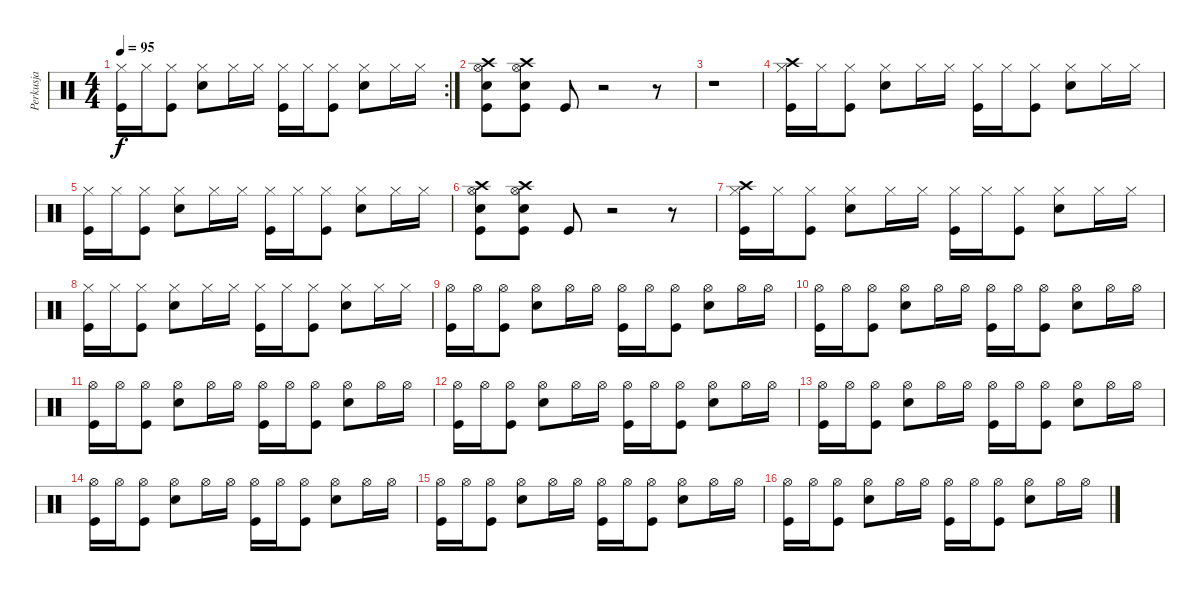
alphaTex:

\track ("Perkusja" "Perkusja") {instrument percussion}
\staff {score}
\articulation defaults
\rc 2
\ts (4 4)
\tempo 95
\clef neutral
\ks c
("Hi-Hat (closed)" "Kick (hit)").16{dy f} "Hi-Hat (closed)".16 ("Hi-Hat (closed)" "Kick (hit)").8 ("Hi-Hat (closed)" "Electric Snare (hit)").8 "Hi-Hat (closed)".16 "Hi-Hat (closed)".16 ("Hi-Hat (closed)" "Kick (hit)").16 "Hi-Hat (closed)".16 ("Hi-Hat (closed)" "Kick (hit)").8 ("Hi-Hat (closed)" "Electric Snare (hit)").8 "Hi-Hat (closed)".16 "Hi-Hat (closed)".16 |
("Hi-Hat (open)" "Crash high (hit)" "Electric Snare (hit)" "Kick (hit)").8 ("Hi-Hat (open)" "Crash high (hit)" "Electric Snare (hit)" "Kick (hit)").8 "Kick (hit)".8 r.2 r.8 |
r.1 |
("Hi-Hat (closed)" "Crash high (hit)" "Kick (hit)").16 "Hi-Hat (closed)".16 ("Hi-Hat (closed)" "Kick (hit)").8 ("Hi-Hat (closed)" "Electric Snare (hit)").8 "Hi-Hat (closed)".16 "Hi-Hat (closed)".16 ("Hi-Hat (closed)" "Kick (hit)").16 "Hi-Hat (closed)".16 ("Hi-Hat (closed)" "Kick (hit)").8 ("Hi-Hat (closed)" "Electric Snare (hit)").8 "Hi-Hat (closed)".16 "Hi-Hat (closed)".16 |
("Hi-Hat (closed)" "Kick (hit)").16 "Hi-Hat (closed)".16 ("Hi-Hat (closed)" "Kick (hit)").8 ("Hi-Hat (closed)" "Electric Snare (hit)").8 "Hi-Hat (closed)".16 "Hi-Hat (closed)".16 ("Hi-Hat (closed)" "Kick (hit)").16 "Hi-Hat (closed)".16 ("Hi-Hat (closed)" "Kick (hit)").8 ("Hi-Hat (closed)" "Electric Snare (hit)").8 "Hi-Hat (closed)".16 "Hi-Hat (closed)".16 |
("Hi-Hat (open)" "Crash high (hit)" "Electric Snare (hit)" "Kick (hit)").8 ("Hi-Hat (open)" "Crash high (hit)" "Electric Snare (hit)" "Kick (hit)").8 "Kick (hit)".8 r.2 r.8 |
("Hi-Hat (closed)" "Crash high (hit)" "Kick (hit)").16 "Hi-Hat (closed)".16 ("Hi-Hat (closed)" "Kick (hit)").8 ("Hi-Hat (closed)" "Electric Snare (hit)").8 "Hi-Hat (closed)".16 "Hi-Hat (closed)".16 ("Hi-Hat (closed)" "Kick (hit)").16 "Hi-Hat (closed)".16 ("Hi-Hat (closed)" "Kick (hit)").8 ("Hi-Hat (closed)" "Electric Snare (hit)").8 "Hi-Hat (closed)".16 "Hi-Hat (closed)".16 |
("Hi-Hat (closed)" "Kick (hit)").16 "Hi-Hat (closed)".16 ("Hi-Hat (closed)" "Kick (hit)").8 ("Hi-Hat (closed)" "Electric Snare (hit)").8 "Hi-Hat (closed)".16 "Hi-Hat (closed)".16 ("Hi-Hat (closed)" "Kick (hit)").16 "Hi-Hat (closed)".16 ("Hi-Hat (closed)" "Kick (hit)").8 ("Hi-Hat (closed)" "Electric Snare (hit)").8 "Hi-Hat (closed)".16 "Hi-Hat (closed)".16 |
("Hi-Hat (open)" "Kick (hit)").16 "Hi-Hat (open)".16 ("Hi-Hat (open)" "Kick (hit)").8 ("Hi-Hat (open)" "Electric Snare (hit)").8 "Hi-Hat (open)".16 "Hi-Hat (open)".16 ("Hi-Hat (open)" "Kick (hit)").16 "Hi-Hat (open)".16 ("Hi-Hat (open)" "Kick (hit)").8 ("Hi-Hat (open)" "Electric Snare (hit)").8 "Hi-Hat (open)".16 "Hi-Hat (open)".16 |
("Hi-Hat (open)" "Kick (hit)").16 "Hi-Hat (open)".16 ("Hi-Hat (open)" "Kick (hit)").8 ("Hi-Hat (open)" "Electric Snare (hit)").8 "Hi-Hat (open)".16 "Hi-Hat (open)".16 ("Hi-Hat (open)" "Kick (hit)").16 "Hi-Hat (open)".16 ("Hi-Hat (open)" "Kick (hit)").8 ("Hi-Hat (open)" "Electric Snare (hit)").8 "Hi-Hat (open)".16 "Hi-Hat (open)".16 |
("Hi-Hat (open)" "Kick (hit)").16 "Hi-Hat (open)".16 ("Hi-Hat (open)" "Kick (hit)").8 ("Hi-Hat (open)" "Electric Snare (hit)").8 "Hi-Hat (open)".16 "Hi-Hat (open)".16 ("Hi-Hat (open)" "Kick (hit)").16 "Hi-Hat (open)".16 ("Hi-Hat (open)" "Kick (hit)").8 ("Hi-Hat (open)" "Electric Snare (hit)").8 "Hi-Hat (open)".16 "Hi-Hat (open)".16 |
("Hi-Hat (open)" "Kick (hit)").16 "Hi-Hat (open)".16 ("Hi-Hat (open)" "Kick (hit)").8 ("Hi-Hat (open)" "Electric Snare (hit)").8 "Hi-Hat (open)".16 "Hi-Hat (open)".16 ("Hi-Hat (open)" "Kick (hit)").16 "Hi-Hat (open)".16 ("Hi-Hat (open)" "Kick (hit)").8 ("Hi-Hat (open)" "Electric Snare (hit)").8 "Hi-Hat (open)".16 "Hi-Hat (open)".16 |
("Hi-Hat (open)" "Kick (hit)").16 "Hi-Hat (open)".16 ("Hi-Hat (open)" "Kick (hit)").8 ("Hi-Hat (open)" "Electric Snare (hit)").8 "Hi-Hat (open)".16 "Hi-Hat (open)".16 ("Hi-Hat (open)" "Kick (hit)").16 "Hi-Hat (open)".16 ("Hi-Hat (open)" "Kick (hit)").8 ("Hi-Hat (open)" "Electric Snare (hit)").8 "Hi-Hat (open)".16 "Hi-Hat (open)".16 |
("Hi-Hat (open)" "Kick (hit)").16 "Hi-Hat (open)".16 ("Hi-Hat (open)" "Kick (hit)").8 ("Hi-Hat (open)" "Electric Snare (hit)").8 "Hi-Hat (open)".16 "Hi-Hat (open)".16 ("Hi-Hat (open)" "Kick (hit)").16 "Hi-Hat (open)".16 ("Hi-Hat (open)" "Kick (hit)").8 ("Hi-Hat (open)" "Electric Snare (hit)").8 "Hi-Hat (open)".16 "Hi-Hat (open)".16 |
("Hi-Hat (open)" "Kick (hit)").16 "Hi-Hat (open)".16 ("Hi-Hat (open)" "Kick (hit)").8 ("Hi-Hat (open)" "Electric Snare (hit)").8 "Hi-Hat (open)".16 "Hi-Hat (open)".16 ("Hi-Hat (open)" "Kick (hit)").16 "Hi-Hat (open)".16 ("Hi-Hat (open)" "Kick (hit)").8 ("Hi-Hat (open)" "Electric Snare (hit)").8 "Hi-Hat (open)".16 "Hi-Hat (open)".16 |
("Hi-Hat (open)" "Kick (hit)").16 "Hi-Hat (open)".16 ("Hi-Hat (open)" "Kick (hit)").8 ("Hi-Hat (open)" "Electric Snare (hit)").8 "Hi-Hat (open)".16 "Hi-Hat (open)".16 ("Hi-Hat (open)" "Kick (hit)").16 "Hi-Hat (open)".16 ("Hi-Hat (open)" "Kick (hit)").8 ("Hi-Hat (open)" "Electric Snare (hit)").8 "Hi-Hat (open)".16 "Hi-Hat (open)".16
